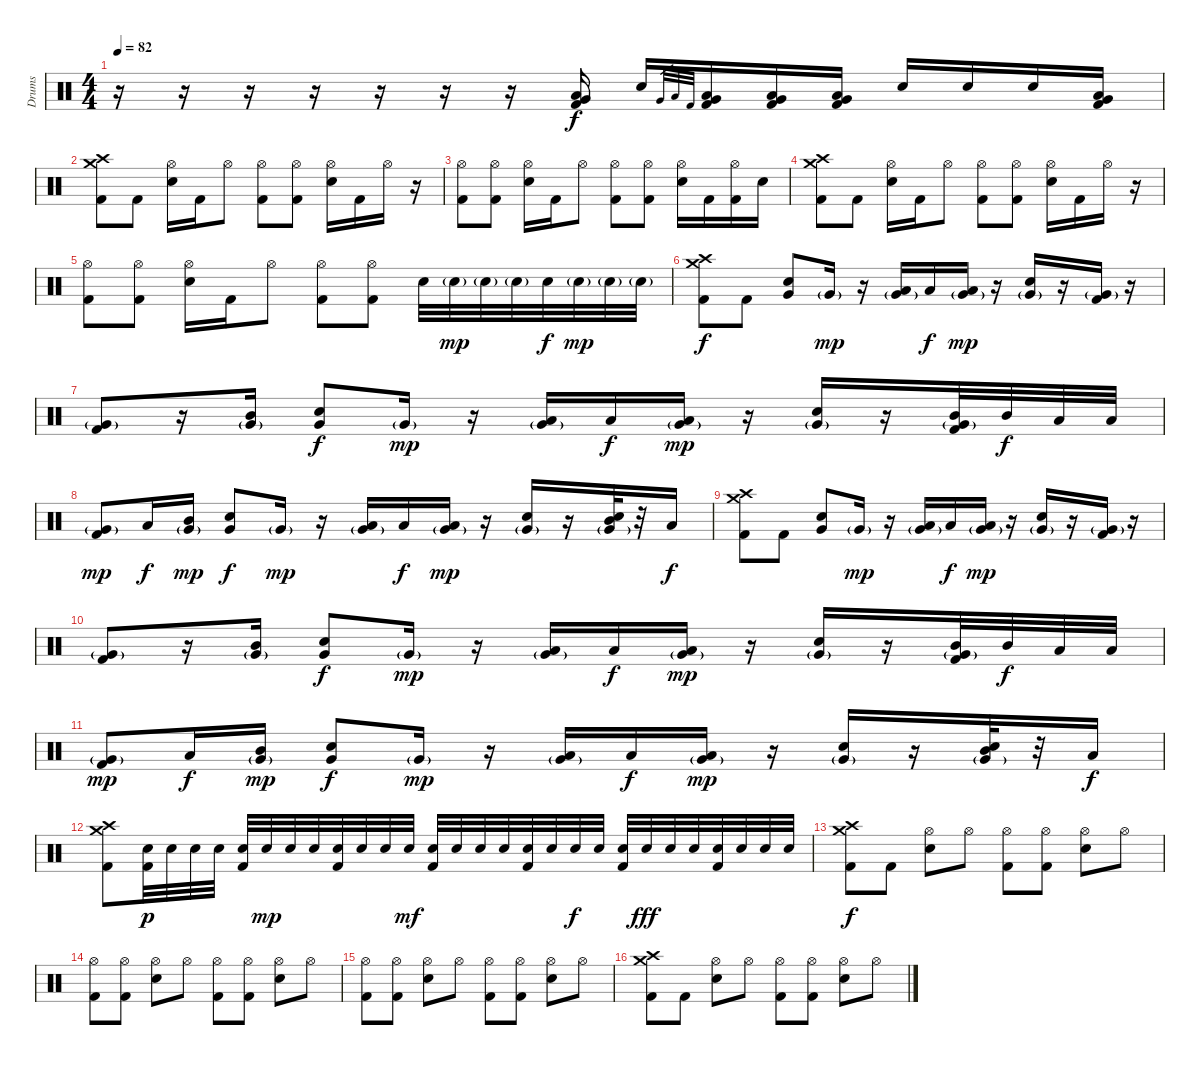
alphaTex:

\track ("Drums" "Drums") {instrument percussion}
\staff {score}
\articulation defaults
\ts (4 4)
\tempo 82
\clef neutral
\ks c
r.16{dy f} r.16 r.16 r.16 r.16 r.16 r.16 ("Very Low Tom (hit)" "Low Tom (hit)" "Kick (hit) 2").16 "Electric Snare (hit)".16 "Very Low Tom (hit)".32{gr} "Low Tom (hit)".32{gr} "Kick (hit) 2".32{gr} ("Very Low Tom (hit)" "Low Tom (hit)" "Kick (hit) 2").16 ("Very Low Tom (hit)" "Low Tom (hit)" "Kick (hit) 2").16 ("Very Low Tom (hit)" "Low Tom (hit)" "Kick (hit) 2").16 "Electric Snare (hit)".16 "Electric Snare (hit)".16 "Electric Snare (hit)".16 ("Very Low Tom (hit)" "Low Tom (hit)" "Kick (hit) 2").16 |
("Crash high (hit)" "Crash medium (hit)" "Kick (hit) 2").8 "Kick (hit) 2".8 ("Hi-Hat (open)" "Electric Snare (hit)").16 "Kick (hit) 2".16 "Hi-Hat (open)".8 ("Hi-Hat (open)" "Kick (hit) 2").8 ("Hi-Hat (open)" "Kick (hit) 2").8 ("Hi-Hat (open)" "Electric Snare (hit)").16 "Kick (hit) 2".16 "Hi-Hat (open)".16 r.16 |
("Hi-Hat (open)" "Kick (hit) 2").8 ("Hi-Hat (open)" "Kick (hit) 2").8 ("Hi-Hat (open)" "Electric Snare (hit)").16 "Kick (hit) 2".16 "Hi-Hat (open)".8 ("Hi-Hat (open)" "Kick (hit) 2").8 ("Hi-Hat (open)" "Kick (hit) 2").8 ("Hi-Hat (open)" "Electric Snare (hit)").16 "Kick (hit) 2".16 ("Hi-Hat (open)" "Kick (hit) 2").16 "Electric Snare (hit)".16 |
("Crash high (hit)" "Crash medium (hit)" "Kick (hit) 2").8 "Kick (hit) 2".8 ("Hi-Hat (open)" "Electric Snare (hit)").16 "Kick (hit) 2".16 "Hi-Hat (open)".8 ("Hi-Hat (open)" "Kick (hit) 2").8 ("Hi-Hat (open)" "Kick (hit) 2").8 ("Hi-Hat (open)" "Electric Snare (hit)").16 "Kick (hit) 2".16 "Hi-Hat (open)".16 r.16 |
("Hi-Hat (open)" "Kick (hit) 2").8 ("Hi-Hat (open)" "Kick (hit) 2").8 ("Hi-Hat (open)" "Electric Snare (hit)").16 "Kick (hit) 2".16 "Hi-Hat (open)".8 ("Hi-Hat (open)" "Kick (hit) 2").8 ("Hi-Hat (open)" "Kick (hit) 2").8 "Electric Snare (hit)".32 "Electric Snare (hit)"{g}.32{dy mp} "Electric Snare (hit)"{g}.32 "Electric Snare (hit)"{g}.32 "Electric Snare (hit)".32{dy f} "Electric Snare (hit)"{g}.32{dy mp} "Electric Snare (hit)"{g}.32 "Electric Snare (hit)"{g}.32 |
("Crash high (hit)" "Crash medium (hit)" "Kick (hit) 2").8{dy f} "Kick (hit) 2".8 ("Very Low Tom (hit)" "Electric Snare (hit)").8 "Very Low Tom (hit)"{g}.16{dy mp} r.16 ("Low Tom (hit)" "Very Low Tom (hit)"{g}).16 "Low Tom (hit)".16{dy f} ("Low Tom (hit)" "Very Low Tom (hit)"{g}).16{dy mp} r.16 ("Very Low Tom (hit)"{g} "Electric Snare (hit)").16 r.16 ("Very Low Tom (hit)"{g} "Kick (hit) 2").16 r.16 |
("Very Low Tom (hit)"{g} "Kick (hit) 2").8 r.16 ("Mid Tom (hit)" "Very Low Tom (hit)"{g}).16 ("Very Low Tom (hit)" "Electric Snare (hit)").8{dy f} "Very Low Tom (hit)"{g}.16{dy mp} r.16 ("Low Tom (hit)" "Very Low Tom (hit)"{g}).16 "Low Tom (hit)".16{dy f} ("Low Tom (hit)" "Very Low Tom (hit)"{g}).16{dy mp} r.16 ("Very Low Tom (hit)"{g} "Electric Snare (hit)").16 r.16 ("Mid Tom (hit)" "Very Low Tom (hit)"{g} "Kick (hit) 2").32 "Mid Tom (hit)".32{dy f} "Low Tom (hit)".32 "Low Tom (hit)".32 |
("Very Low Tom (hit)"{g} "Kick (hit) 2").8{dy mp} "Low Tom (hit)".16{dy f} ("Mid Tom (hit)" "Very Low Tom (hit)"{g}).16{dy mp} ("Very Low Tom (hit)" "Electric Snare (hit)").8{dy f} "Very Low Tom (hit)"{g}.16{dy mp} r.16 ("Low Tom (hit)" "Very Low Tom (hit)"{g}).16 "Low Tom (hit)".16{dy f} ("Low Tom (hit)" "Very Low Tom (hit)"{g}).16{dy mp} r.16 ("Very Low Tom (hit)"{g} "Electric Snare (hit)").16 r.16 ("Mid Tom (hit)" "Very Low Tom (hit)"{g} "Electric Snare (hit)").32 r.32 "Low Tom (hit)".16{dy f} |
("Crash high (hit)" "Crash medium (hit)" "Kick (hit) 2").8 "Kick (hit) 2".8 ("Very Low Tom (hit)" "Electric Snare (hit)").8 "Very Low Tom (hit)"{g}.16{dy mp} r.16 ("Low Tom (hit)" "Very Low Tom (hit)"{g}).16 "Low Tom (hit)".16{dy f} ("Low Tom (hit)" "Very Low Tom (hit)"{g}).16{dy mp} r.16 ("Very Low Tom (hit)"{g} "Electric Snare (hit)").16 r.16 ("Very Low Tom (hit)"{g} "Kick (hit) 2").16 r.16 |
("Very Low Tom (hit)"{g} "Kick (hit) 2").8 r.16 ("Mid Tom (hit)" "Very Low Tom (hit)"{g}).16 ("Very Low Tom (hit)" "Electric Snare (hit)").8{dy f} "Very Low Tom (hit)"{g}.16{dy mp} r.16 ("Low Tom (hit)" "Very Low Tom (hit)"{g}).16 "Low Tom (hit)".16{dy f} ("Low Tom (hit)" "Very Low Tom (hit)"{g}).16{dy mp} r.16 ("Very Low Tom (hit)"{g} "Electric Snare (hit)").16 r.16 ("Mid Tom (hit)" "Very Low Tom (hit)"{g} "Kick (hit) 2").32 "Mid Tom (hit)".32{dy f} "Low Tom (hit)".32 "Low Tom (hit)".32 |
("Very Low Tom (hit)"{g} "Kick (hit) 2").8{dy mp} "Low Tom (hit)".16{dy f} ("Mid Tom (hit)" "Very Low Tom (hit)"{g}).16{dy mp} ("Very Low Tom (hit)" "Electric Snare (hit)").8{dy f} "Very Low Tom (hit)"{g}.16{dy mp} r.16 ("Low Tom (hit)" "Very Low Tom (hit)"{g}).16 "Low Tom (hit)".16{dy f} ("Low Tom (hit)" "Very Low Tom (hit)"{g}).16{dy mp} r.16 ("Very Low Tom (hit)"{g} "Electric Snare (hit)").16 r.16 ("Mid Tom (hit)" "Very Low Tom (hit)"{g} "Electric Snare (hit)").32 r.32 "Low Tom (hit)".16{dy f} |
("Crash high (hit)" "Crash medium (hit)" "Kick (hit) 2").8 ("Kick (hit) 2" "Electric Snare (hit)").32{dy p} "Electric Snare (hit)".32 "Electric Snare (hit)".32 "Electric Snare (hit)".32 ("Kick (hit) 2" "Electric Snare (hit)").32 "Electric Snare (hit)".32{dy mp} "Electric Snare (hit)".32 "Electric Snare (hit)".32 ("Kick (hit) 2" "Electric Snare (hit)").32 "Electric Snare (hit)".32 "Electric Snare (hit)".32 "Electric Snare (hit)".32{dy mf} ("Kick (hit) 2" "Electric Snare (hit)").32 "Electric Snare (hit)".32 "Electric Snare (hit)".32 "Electric Snare (hit)".32 ("Kick (hit) 2" "Electric Snare (hit)").32 "Electric Snare (hit)".32 "Electric Snare (hit)".32{dy f} "Electric Snare (hit)".32 ("Kick (hit) 2" "Electric Snare (hit)").32 "Electric Snare (hit)".32{dy fff} "Electric Snare (hit)".32 "Electric Snare (hit)".32 ("Kick (hit) 2" "Electric Snare (hit)").32 "Electric Snare (hit)".32 "Electric Snare (hit)".32 "Electric Snare (hit)".32 |
("Crash high (hit)" "Crash medium (hit)" "Kick (hit) 2").8{dy f} "Kick (hit) 2".8 ("Hi-Hat (open)" "Electric Snare (hit)").8 "Hi-Hat (open)".8 ("Hi-Hat (open)" "Kick (hit) 2").8 ("Hi-Hat (open)" "Kick (hit) 2").8 ("Hi-Hat (open)" "Electric Snare (hit)").8 "Hi-Hat (open)".8 |
("Hi-Hat (open)" "Kick (hit) 2").8 ("Hi-Hat (open)" "Kick (hit) 2").8 ("Hi-Hat (open)" "Electric Snare (hit)").8 "Hi-Hat (open)".8 ("Hi-Hat (open)" "Kick (hit) 2").8 ("Hi-Hat (open)" "Kick (hit) 2").8 ("Hi-Hat (open)" "Electric Snare (hit)").8 "Hi-Hat (open)".8 |
("Hi-Hat (open)" "Kick (hit) 2").8 ("Hi-Hat (open)" "Kick (hit) 2").8 ("Hi-Hat (open)" "Electric Snare (hit)").8 "Hi-Hat (open)".8 ("Hi-Hat (open)" "Kick (hit) 2").8 ("Hi-Hat (open)" "Kick (hit) 2").8 ("Hi-Hat (open)" "Electric Snare (hit)").8 "Hi-Hat (open)".8 |
("Crash high (hit)" "Crash medium (hit)" "Kick (hit) 2").8 "Kick (hit) 2".8 ("Hi-Hat (open)" "Electric Snare (hit)").8 "Hi-Hat (open)".8 ("Hi-Hat (open)" "Kick (hit) 2").8 ("Hi-Hat (open)" "Kick (hit) 2").8 ("Hi-Hat (open)" "Electric Snare (hit)").8 "Hi-Hat (open)".8
